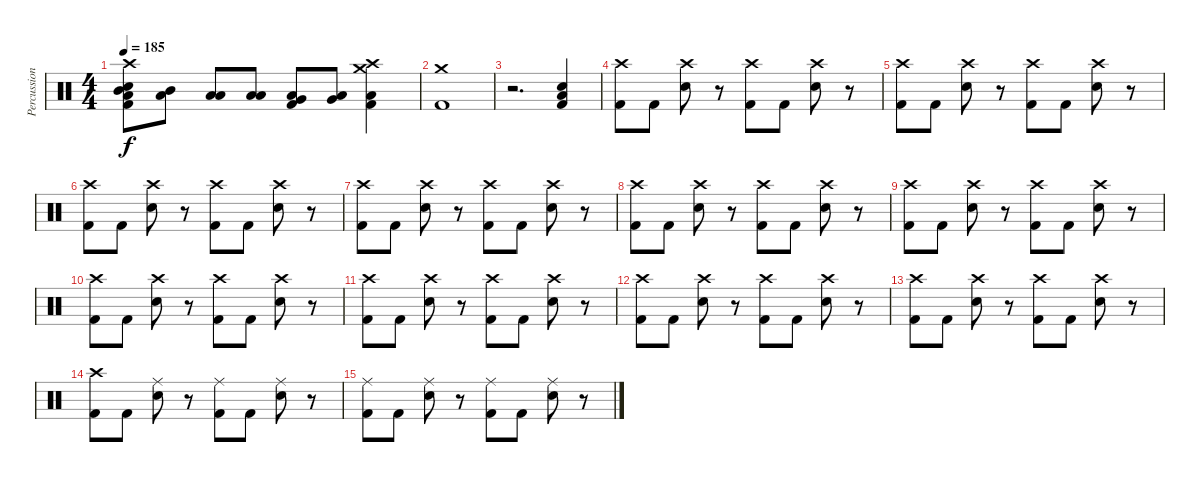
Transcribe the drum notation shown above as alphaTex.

\track ("Percussion" "Percussion") {instrument percussion}
\staff {score}
\articulation defaults
\ts (4 4)
\tempo 185
\clef neutral
\ks c
("Crash high (hit)" "Mid Tom (hit)" "Low Floor Tom (hit)" "Snare (hit) 2" "Kick (hit) 2").8{dy f} ("Mid Tom (hit)" "Low Floor Tom (hit)").8 ("Low Tom (hit)" "Low Floor Tom (hit)").8 ("Low Tom (hit)" "Low Floor Tom (hit)").8 ("Very Low Tom (hit)" "Low Floor Tom (hit)" "Kick (hit) 2").8 ("Very Low Tom (hit)" "Low Floor Tom (hit)").8 ("Crash medium (hit)" "Crash high (hit)" "Low Floor Tom (hit)" "Kick (hit) 2").4 |
("Crash medium (hit)" "Kick (hit) 2").1 |
r.2{d} ("Low Floor Tom (hit)" "Snare (hit) 2" "Kick (hit) 2").4 |
("Crash high (hit)" "Kick (hit) 2").8 "Kick (hit) 2".8 ("Crash high (hit)" "Snare (hit) 2").8 r.8 ("Crash high (hit)" "Kick (hit) 2").8 "Kick (hit) 2".8 ("Crash high (hit)" "Snare (hit) 2").8 r.8 |
("Crash high (hit)" "Kick (hit) 2").8 "Kick (hit) 2".8 ("Crash high (hit)" "Snare (hit) 2").8 r.8 ("Crash high (hit)" "Kick (hit) 2").8 "Kick (hit) 2".8 ("Crash high (hit)" "Snare (hit) 2").8 r.8 |
("Crash high (hit)" "Kick (hit) 2").8 "Kick (hit) 2".8 ("Crash high (hit)" "Snare (hit) 2").8 r.8 ("Crash high (hit)" "Kick (hit) 2").8 "Kick (hit) 2".8 ("Crash high (hit)" "Snare (hit) 2").8 r.8 |
("Crash high (hit)" "Kick (hit) 2").8 "Kick (hit) 2".8 ("Crash high (hit)" "Snare (hit) 2").8 r.8 ("Crash high (hit)" "Kick (hit) 2").8 "Kick (hit) 2".8 ("Crash high (hit)" "Snare (hit) 2").8 r.8 |
("Crash high (hit)" "Kick (hit) 2").8 "Kick (hit) 2".8 ("Crash high (hit)" "Snare (hit) 2").8 r.8 ("Crash high (hit)" "Kick (hit) 2").8 "Kick (hit) 2".8 ("Crash high (hit)" "Snare (hit) 2").8 r.8 |
("Crash high (hit)" "Kick (hit) 2").8 "Kick (hit) 2".8 ("Crash high (hit)" "Snare (hit) 2").8 r.8 ("Crash high (hit)" "Kick (hit) 2").8 "Kick (hit) 2".8 ("Crash high (hit)" "Snare (hit) 2").8 r.8 |
("Crash high (hit)" "Kick (hit) 2").8 "Kick (hit) 2".8 ("Crash high (hit)" "Snare (hit) 2").8 r.8 ("Crash high (hit)" "Kick (hit) 2").8 "Kick (hit) 2".8 ("Crash high (hit)" "Snare (hit) 2").8 r.8 |
("Crash high (hit)" "Kick (hit) 2").8 "Kick (hit) 2".8 ("Crash high (hit)" "Snare (hit) 2").8 r.8 ("Crash high (hit)" "Kick (hit) 2").8 "Kick (hit) 2".8 ("Crash high (hit)" "Snare (hit) 2").8 r.8 |
("Crash high (hit)" "Kick (hit) 2").8 "Kick (hit) 2".8 ("Crash high (hit)" "Snare (hit) 2").8 r.8 ("Crash high (hit)" "Kick (hit) 2").8 "Kick (hit) 2".8 ("Crash high (hit)" "Snare (hit) 2").8 r.8 |
("Crash high (hit)" "Kick (hit) 2").8 "Kick (hit) 2".8 ("Crash high (hit)" "Snare (hit) 2").8 r.8 ("Crash high (hit)" "Kick (hit) 2").8 "Kick (hit) 2".8 ("Crash high (hit)" "Snare (hit) 2").8 r.8 |
("Crash high (hit)" "Kick (hit) 2").8 "Kick (hit) 2".8 ("Ride (middle)" "Snare (hit) 2").8 r.8 ("Ride (middle)" "Kick (hit) 2").8 "Kick (hit) 2".8 ("Ride (middle)" "Snare (hit) 2").8 r.8 |
("Ride (middle)" "Kick (hit) 2").8 "Kick (hit) 2".8 ("Ride (middle)" "Snare (hit) 2").8 r.8 ("Ride (middle)" "Kick (hit) 2").8 "Kick (hit) 2".8 ("Ride (middle)" "Snare (hit) 2").8 r.8
